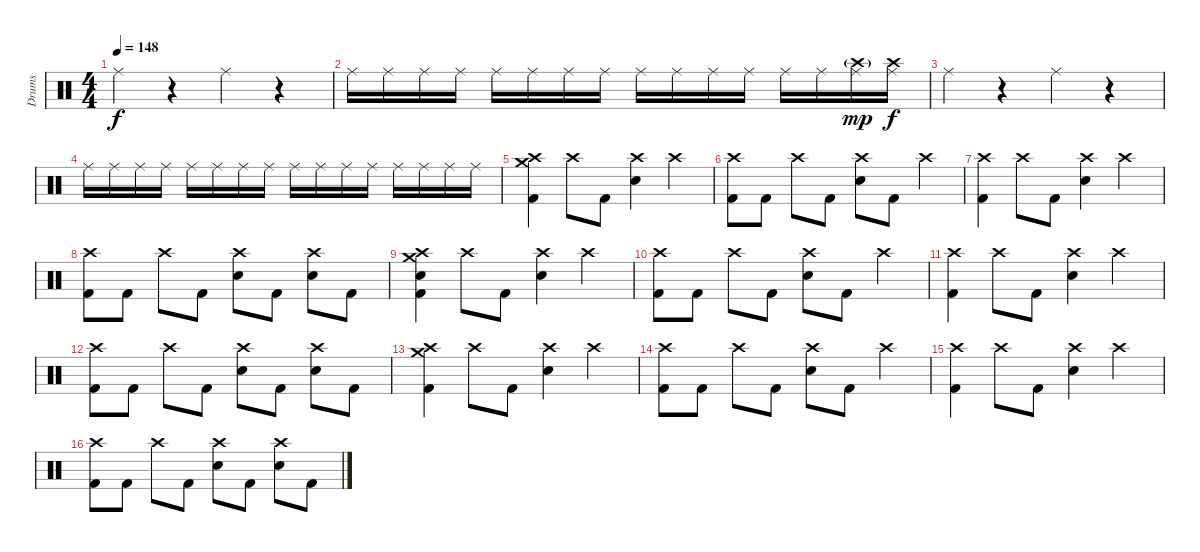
\track ("Drums" "Drums") {instrument percussion}
\staff {score}
\articulation defaults
\ts (4 4)
\tempo 148
\clef neutral
\ks c "Ride (middle)".4{dy f}
r.4 "Ride (middle)".4 r.4 |
"Ride (middle)".16 "Ride (middle)".16 "Ride (middle)".16 "Ride (middle)".16 "Ride (middle)".16 "Ride (middle)".16 "Ride (middle)".16 "Ride (middle)".16 "Ride (middle)".16 "Ride (middle)".16 "Ride (middle)".16 "Ride (middle)".16 "Ride (middle)".16 "Ride (middle)".16 ("Ride (middle)" "Crash high (hit)"{g}).16{dy mp} ("Ride (middle)" "Crash high (hit)").16{dy f} |
"Ride (middle)".4 r.4 "Ride (middle)".4 r.4 |
"Ride (middle)".16 "Ride (middle)".16 "Ride (middle)".16 "Ride (middle)".16 "Ride (middle)".16 "Ride (middle)".16 "Ride (middle)".16 "Ride (middle)".16 "Ride (middle)".16 "Ride (middle)".16 "Ride (middle)".16 "Ride (middle)".16 "Ride (middle)".16 "Ride (middle)".16 "Ride (middle)".16 "Ride (middle)".16 |
("Crash medium (hit)" "Crash high (hit)" "Kick (hit) 2").4 "Crash high (hit)".8 "Kick (hit) 2".8 ("Crash high (hit)" "Electric Snare (hit)").4 "Crash high (hit)".4 |
("Crash high (hit)" "Kick (hit) 2").8 "Kick (hit) 2".8 "Crash high (hit)".8 "Kick (hit) 2".8 ("Crash high (hit)" "Electric Snare (hit)").8 "Kick (hit) 2".8 "Crash high (hit)".4 |
("Crash high (hit)" "Kick (hit) 2").4 "Crash high (hit)".8 "Kick (hit) 2".8 ("Crash high (hit)" "Electric Snare (hit)").4 "Crash high (hit)".4 |
("Crash high (hit)" "Kick (hit) 2").8 "Kick (hit) 2".8 "Crash high (hit)".8 "Kick (hit) 2".8 ("Crash high (hit)" "Electric Snare (hit)").8 "Kick (hit) 2".8 ("Crash high (hit)" "Electric Snare (hit)").8 "Kick (hit) 2".8 |
("Crash medium (hit)" "Crash high (hit)" "Electric Snare (hit)" "Kick (hit) 2").4 "Crash high (hit)".8 "Kick (hit) 2".8 ("Crash high (hit)" "Electric Snare (hit)").4 "Crash high (hit)".4 |
("Crash high (hit)" "Kick (hit) 2").8 "Kick (hit) 2".8 "Crash high (hit)".8 "Kick (hit) 2".8 ("Crash high (hit)" "Electric Snare (hit)").8 "Kick (hit) 2".8 "Crash high (hit)".4 |
("Crash high (hit)" "Kick (hit) 2").4 "Crash high (hit)".8 "Kick (hit) 2".8 ("Crash high (hit)" "Electric Snare (hit)").4 "Crash high (hit)".4 |
("Crash high (hit)" "Kick (hit) 2").8 "Kick (hit) 2".8 "Crash high (hit)".8 "Kick (hit) 2".8 ("Crash high (hit)" "Electric Snare (hit)").8 "Kick (hit) 2".8 ("Crash high (hit)" "Electric Snare (hit)").8 "Kick (hit) 2".8 |
("Crash medium (hit)" "Crash high (hit)" "Kick (hit) 2").4 "Crash high (hit)".8 "Kick (hit) 2".8 ("Crash high (hit)" "Electric Snare (hit)").4 "Crash high (hit)".4 |
("Crash high (hit)" "Kick (hit) 2").8 "Kick (hit) 2".8 "Crash high (hit)".8 "Kick (hit) 2".8 ("Crash high (hit)" "Electric Snare (hit)").8 "Kick (hit) 2".8 "Crash high (hit)".4 |
("Crash high (hit)" "Kick (hit) 2").4 "Crash high (hit)".8 "Kick (hit) 2".8 ("Crash high (hit)" "Electric Snare (hit)").4 "Crash high (hit)".4 |
("Crash high (hit)" "Kick (hit) 2").8 "Kick (hit) 2".8 "Crash high (hit)".8 "Kick (hit) 2".8 ("Crash high (hit)" "Electric Snare (hit)").8 "Kick (hit) 2".8 ("Crash high (hit)" "Electric Snare (hit)").8 "Kick (hit) 2".8
